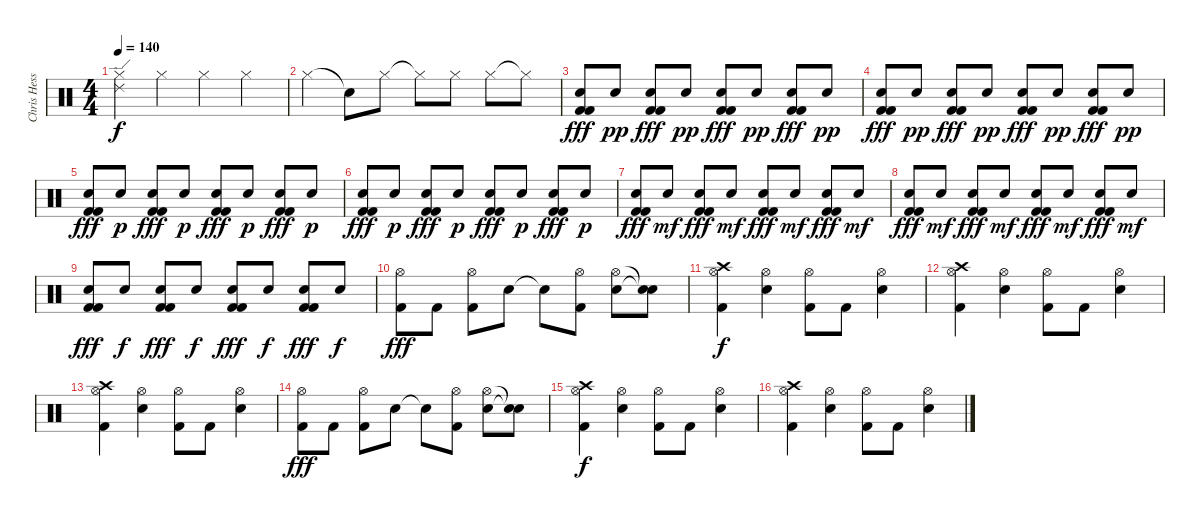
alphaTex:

\track ("Chris Hesse" "Chris Hess") {instrument percussion}
\staff {score}
\articulation defaults
\ts (4 4)
\tempo 140
\clef neutral
\ks c
("Hi-Hat (closed)" "Ride (edge) 2").4{dy f} "Hi-Hat (closed)".4 "Hi-Hat (closed)".4 "Hi-Hat (closed)".4 |
"Hi-Hat (closed)".4 "Snare (hit)"{t}.8 "Hi-Hat (closed)".8 "Hi-Hat (closed)"{t}.8 "Hi-Hat (closed)".8 "Hi-Hat (closed)".8 "Hi-Hat (closed)"{t}.8 |
("Electric Snare (hit)" "Kick (hit) 2" "Kick (hit) 2").8{dy fff} "Electric Snare (hit)".8{dy pp} ("Electric Snare (hit)" "Kick (hit) 2" "Kick (hit) 2").8{dy fff} "Electric Snare (hit)".8{dy pp} ("Electric Snare (hit)" "Kick (hit) 2" "Kick (hit) 2").8{dy fff} "Electric Snare (hit)".8{dy pp} ("Electric Snare (hit)" "Kick (hit) 2" "Kick (hit) 2").8{dy fff} "Electric Snare (hit)".8{dy pp} |
("Electric Snare (hit)" "Kick (hit) 2" "Kick (hit) 2").8{dy fff} "Electric Snare (hit)".8{dy pp} ("Electric Snare (hit)" "Kick (hit) 2" "Kick (hit) 2").8{dy fff} "Electric Snare (hit)".8{dy pp} ("Electric Snare (hit)" "Kick (hit) 2" "Kick (hit) 2").8{dy fff} "Electric Snare (hit)".8{dy pp} ("Electric Snare (hit)" "Kick (hit) 2" "Kick (hit) 2").8{dy fff} "Electric Snare (hit)".8{dy pp} |
("Electric Snare (hit)" "Kick (hit) 2" "Kick (hit) 2").8{dy fff} "Electric Snare (hit)".8{dy p} ("Electric Snare (hit)" "Kick (hit) 2" "Kick (hit) 2").8{dy fff} "Electric Snare (hit)".8{dy p} ("Electric Snare (hit)" "Kick (hit) 2" "Kick (hit) 2").8{dy fff} "Electric Snare (hit)".8{dy p} ("Electric Snare (hit)" "Kick (hit) 2" "Kick (hit) 2").8{dy fff} "Electric Snare (hit)".8{dy p} |
("Electric Snare (hit)" "Kick (hit) 2" "Kick (hit) 2").8{dy fff} "Electric Snare (hit)".8{dy p} ("Electric Snare (hit)" "Kick (hit) 2" "Kick (hit) 2").8{dy fff} "Electric Snare (hit)".8{dy p} ("Electric Snare (hit)" "Kick (hit) 2" "Kick (hit) 2").8{dy fff} "Electric Snare (hit)".8{dy p} ("Electric Snare (hit)" "Kick (hit) 2" "Kick (hit) 2").8{dy fff} "Electric Snare (hit)".8{dy p} |
("Electric Snare (hit)" "Kick (hit) 2" "Kick (hit) 2").8{dy fff} "Electric Snare (hit)".8{dy mf} ("Electric Snare (hit)" "Kick (hit) 2" "Kick (hit) 2").8{dy fff} "Electric Snare (hit)".8{dy mf} ("Electric Snare (hit)" "Kick (hit) 2" "Kick (hit) 2").8{dy fff} "Electric Snare (hit)".8{dy mf} ("Electric Snare (hit)" "Kick (hit) 2" "Kick (hit) 2").8{dy fff} "Electric Snare (hit)".8{dy mf} |
("Electric Snare (hit)" "Kick (hit) 2" "Kick (hit) 2").8{dy fff} "Electric Snare (hit)".8{dy mf} ("Electric Snare (hit)" "Kick (hit) 2" "Kick (hit) 2").8{dy fff} "Electric Snare (hit)".8{dy mf} ("Electric Snare (hit)" "Kick (hit) 2" "Kick (hit) 2").8{dy fff} "Electric Snare (hit)".8{dy mf} ("Electric Snare (hit)" "Kick (hit) 2" "Kick (hit) 2").8{dy fff} "Electric Snare (hit)".8{dy mf} |
("Electric Snare (hit)" "Kick (hit) 2" "Kick (hit) 2").8{dy fff} "Electric Snare (hit)".8{dy f} ("Electric Snare (hit)" "Kick (hit) 2" "Kick (hit) 2").8{dy fff} "Electric Snare (hit)".8{dy f} ("Electric Snare (hit)" "Kick (hit) 2" "Kick (hit) 2").8{dy fff} "Electric Snare (hit)".8{dy f} ("Electric Snare (hit)" "Kick (hit) 2" "Kick (hit) 2").8{dy fff} "Electric Snare (hit)".8{dy f} |
("Kick (hit) 2" "Hi-Hat (open)").8{dy fff} "Kick (hit) 2".8 ("Kick (hit) 2" "Hi-Hat (open)").8 "Electric Snare (hit)".8 "Snare (hit)"{t}.8 ("Kick (hit) 2" "Hi-Hat (open)").8 ("Electric Snare (hit)" "Hi-Hat (open)").8 ("Snare (hit)"{t} "Snare (hit)"{t}).8 |
("Kick (hit) 2" "Crash high (hit)" "Hi-Hat (open)").4{dy f} ("Electric Snare (hit)" "Hi-Hat (open)").4 ("Kick (hit) 2" "Hi-Hat (open)").8 "Kick (hit) 2".8 ("Electric Snare (hit)" "Hi-Hat (open)").4 |
("Kick (hit) 2" "Crash high (hit)" "Hi-Hat (open)").4 ("Electric Snare (hit)" "Hi-Hat (open)").4 ("Kick (hit) 2" "Hi-Hat (open)").8 "Kick (hit) 2".8 ("Electric Snare (hit)" "Hi-Hat (open)").4 |
("Kick (hit) 2" "Crash high (hit)" "Hi-Hat (open)").4 ("Electric Snare (hit)" "Hi-Hat (open)").4 ("Kick (hit) 2" "Hi-Hat (open)").8 "Kick (hit) 2".8 ("Electric Snare (hit)" "Hi-Hat (open)").4 |
("Kick (hit) 2" "Hi-Hat (open)").8{dy fff} "Kick (hit) 2".8 ("Kick (hit) 2" "Hi-Hat (open)").8 "Electric Snare (hit)".8 "Snare (hit)"{t}.8 ("Kick (hit) 2" "Hi-Hat (open)").8 ("Electric Snare (hit)" "Hi-Hat (open)").8 ("Snare (hit)"{t} "Snare (hit)"{t}).8 |
("Kick (hit) 2" "Crash high (hit)" "Hi-Hat (open)").4{dy f} ("Electric Snare (hit)" "Hi-Hat (open)").4 ("Kick (hit) 2" "Hi-Hat (open)").8 "Kick (hit) 2".8 ("Electric Snare (hit)" "Hi-Hat (open)").4 |
("Kick (hit) 2" "Crash high (hit)" "Hi-Hat (open)").4 ("Electric Snare (hit)" "Hi-Hat (open)").4 ("Kick (hit) 2" "Hi-Hat (open)").8 "Kick (hit) 2".8 ("Electric Snare (hit)" "Hi-Hat (open)").4
